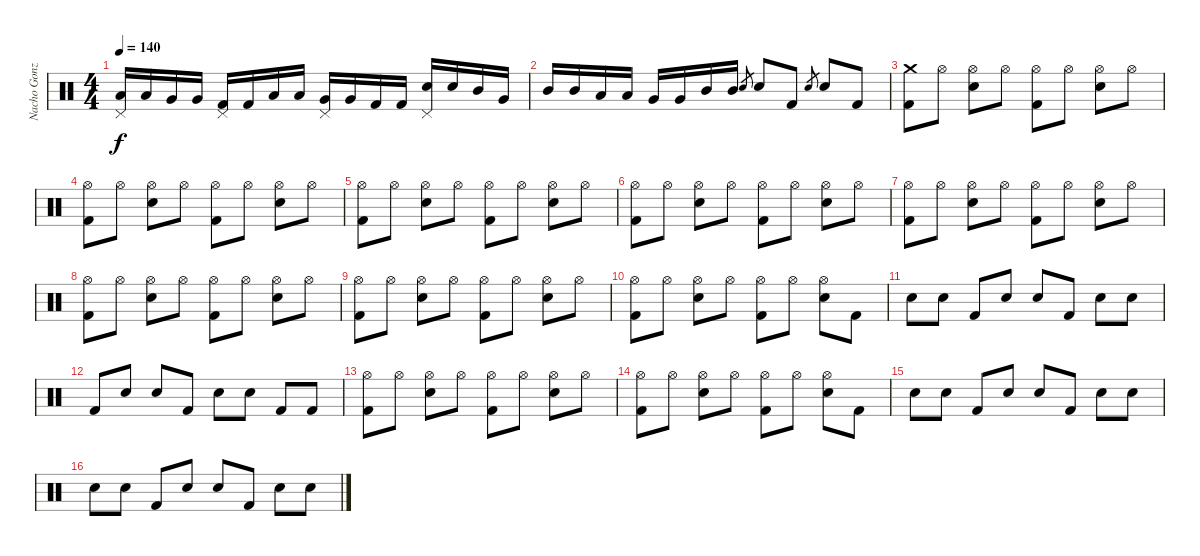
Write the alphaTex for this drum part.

\track ("Nacho Gonzalez" "Nacho Gonz") {instrument percussion}
\staff {score}
\articulation defaults
\ts (4 4)
\tempo 140
\clef neutral
\ks c
("Pedal Hi-Hat (hit)" "Low Tom (hit)").16{dy f} "Low Tom (hit)".16 "Very Low Tom (hit)".16 "Very Low Tom (hit)".16 ("Pedal Hi-Hat (hit)" "Kick (hit) 2").16 "Kick (hit) 2".16 "Low Tom (hit)".16 "Low Tom (hit)".16 ("Pedal Hi-Hat (hit)" "Very Low Tom (hit)").16 "Very Low Tom (hit)".16 "Kick (hit) 2".16 "Kick (hit) 2".16 ("Pedal Hi-Hat (hit)" "Electric Snare (hit)").16 "Electric Snare (hit)".16 "Mid Tom (hit)".16 "Very Low Tom (hit)".16 |
"Mid Tom (hit)".16 "Mid Tom (hit)".16 "Low Tom (hit)".16 "Low Tom (hit)".16 "Very Low Tom (hit)".16 "Very Low Tom (hit)".16 "Mid Tom (hit)".16 "Mid Tom (hit)".16 "Electric Snare (hit)".8{gr} "Electric Snare (hit)".8 "Kick (hit) 2".8 "Electric Snare (hit)".8{gr} "Electric Snare (hit)".8 "Kick (hit) 2".8 |
("Crash medium (hit)" "Kick (hit) 2").8 "Hi-Hat (open)".8 ("Hi-Hat (open)" "Electric Snare (hit)").8 "Hi-Hat (open)".8 ("Hi-Hat (open)" "Kick (hit) 2").8 "Hi-Hat (open)".8 ("Hi-Hat (open)" "Electric Snare (hit)").8 "Hi-Hat (open)".8 |
("Hi-Hat (open)" "Kick (hit) 2").8 "Hi-Hat (open)".8 ("Hi-Hat (open)" "Electric Snare (hit)").8 "Hi-Hat (open)".8 ("Hi-Hat (open)" "Kick (hit) 2").8 "Hi-Hat (open)".8 ("Hi-Hat (open)" "Electric Snare (hit)").8 "Hi-Hat (open)".8 |
("Hi-Hat (open)" "Kick (hit) 2").8 "Hi-Hat (open)".8 ("Hi-Hat (open)" "Electric Snare (hit)").8 "Hi-Hat (open)".8 ("Hi-Hat (open)" "Kick (hit) 2").8 "Hi-Hat (open)".8 ("Hi-Hat (open)" "Electric Snare (hit)").8 "Hi-Hat (open)".8 |
("Hi-Hat (open)" "Kick (hit) 2").8 "Hi-Hat (open)".8 ("Hi-Hat (open)" "Electric Snare (hit)").8 "Hi-Hat (open)".8 ("Hi-Hat (open)" "Kick (hit) 2").8 "Hi-Hat (open)".8 ("Hi-Hat (open)" "Electric Snare (hit)").8 "Hi-Hat (open)".8 |
("Hi-Hat (open)" "Kick (hit) 2").8 "Hi-Hat (open)".8 ("Hi-Hat (open)" "Electric Snare (hit)").8 "Hi-Hat (open)".8 ("Hi-Hat (open)" "Kick (hit) 2").8 "Hi-Hat (open)".8 ("Hi-Hat (open)" "Electric Snare (hit)").8 "Hi-Hat (open)".8 |
("Hi-Hat (open)" "Kick (hit) 2").8 "Hi-Hat (open)".8 ("Hi-Hat (open)" "Electric Snare (hit)").8 "Hi-Hat (open)".8 ("Hi-Hat (open)" "Kick (hit) 2").8 "Hi-Hat (open)".8 ("Hi-Hat (open)" "Electric Snare (hit)").8 "Hi-Hat (open)".8 |
("Hi-Hat (open)" "Kick (hit) 2").8 "Hi-Hat (open)".8 ("Hi-Hat (open)" "Electric Snare (hit)").8 "Hi-Hat (open)".8 ("Hi-Hat (open)" "Kick (hit) 2").8 "Hi-Hat (open)".8 ("Hi-Hat (open)" "Electric Snare (hit)").8 "Hi-Hat (open)".8 |
("Hi-Hat (open)" "Kick (hit) 2").8 "Hi-Hat (open)".8 ("Hi-Hat (open)" "Electric Snare (hit)").8 "Hi-Hat (open)".8 ("Hi-Hat (open)" "Kick (hit) 2").8 "Hi-Hat (open)".8 ("Hi-Hat (open)" "Electric Snare (hit)").8 "Kick (hit) 2".8 |
"Electric Snare (hit)".8 "Electric Snare (hit)".8 "Kick (hit) 2".8 "Electric Snare (hit)".8 "Electric Snare (hit)".8 "Kick (hit) 2".8 "Electric Snare (hit)".8 "Electric Snare (hit)".8 |
"Kick (hit) 2".8 "Electric Snare (hit)".8 "Electric Snare (hit)".8 "Kick (hit) 2".8 "Electric Snare (hit)".8 "Electric Snare (hit)".8 "Kick (hit) 2".8 "Kick (hit) 2".8 |
("Hi-Hat (open)" "Kick (hit) 2").8 "Hi-Hat (open)".8 ("Hi-Hat (open)" "Electric Snare (hit)").8 "Hi-Hat (open)".8 ("Hi-Hat (open)" "Kick (hit) 2").8 "Hi-Hat (open)".8 ("Hi-Hat (open)" "Electric Snare (hit)").8 "Hi-Hat (open)".8 |
("Hi-Hat (open)" "Kick (hit) 2").8 "Hi-Hat (open)".8 ("Hi-Hat (open)" "Electric Snare (hit)").8 "Hi-Hat (open)".8 ("Hi-Hat (open)" "Kick (hit) 2").8 "Hi-Hat (open)".8 ("Hi-Hat (open)" "Electric Snare (hit)").8 "Kick (hit) 2".8 |
"Electric Snare (hit)".8 "Electric Snare (hit)".8 "Kick (hit) 2".8 "Electric Snare (hit)".8 "Electric Snare (hit)".8 "Kick (hit) 2".8 "Electric Snare (hit)".8 "Electric Snare (hit)".8 |
"Electric Snare (hit)".8 "Electric Snare (hit)".8 "Kick (hit) 2".8 "Electric Snare (hit)".8 "Electric Snare (hit)".8 "Kick (hit) 2".8 "Electric Snare (hit)".8 "Electric Snare (hit)".8
